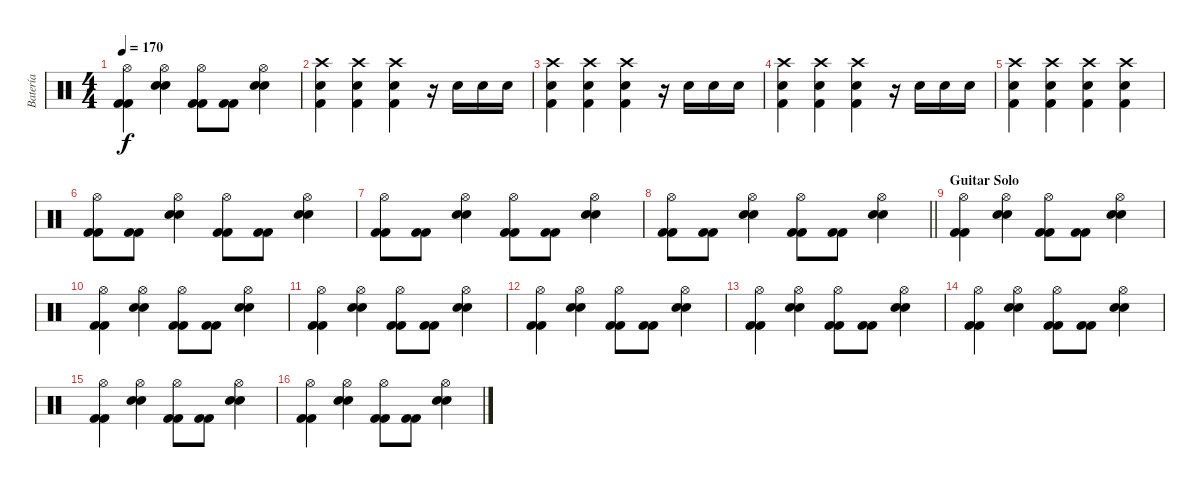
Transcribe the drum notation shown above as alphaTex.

\track ("Batería" "Batería") {instrument percussion}
\staff {score}
\articulation defaults
\ts (4 4)
\tempo 170
\clef neutral
\ks c
("Hi-Hat (open)" "Kick (hit) 2" "Kick (hit) 2").4{dy f} ("Hi-Hat (open)" "Snare (hit) 2" "Snare (hit) 2").4 ("Hi-Hat (open)" "Kick (hit) 2" "Kick (hit) 2").8 ("Kick (hit) 2" "Kick (hit) 2").8 ("Hi-Hat (open)" "Snare (hit) 2" "Snare (hit) 2").4 |
("Crash high (hit)" "Snare (hit) 2" "Kick (hit) 2").4 ("Crash high (hit)" "Snare (hit) 2" "Kick (hit) 2").4 ("Crash high (hit)" "Snare (hit) 2" "Kick (hit) 2").4 r.16 "Snare (hit) 2".16 "Snare (hit) 2".16 "Snare (hit) 2".16 |
("Crash high (hit)" "Snare (hit) 2" "Kick (hit) 2").4 ("Crash high (hit)" "Snare (hit) 2" "Kick (hit) 2").4 ("Crash high (hit)" "Snare (hit) 2" "Kick (hit) 2").4 r.16 "Snare (hit) 2".16 "Snare (hit) 2".16 "Snare (hit) 2".16 |
("Crash high (hit)" "Snare (hit) 2" "Kick (hit) 2").4 ("Crash high (hit)" "Snare (hit) 2" "Kick (hit) 2").4 ("Crash high (hit)" "Snare (hit) 2" "Kick (hit) 2").4 r.16 "Snare (hit) 2".16 "Snare (hit) 2".16 "Snare (hit) 2".16 |
("Crash high (hit)" "Snare (hit) 2" "Kick (hit) 2").4 ("Crash high (hit)" "Snare (hit) 2" "Kick (hit) 2").4 ("Crash high (hit)" "Snare (hit) 2" "Kick (hit) 2").4 ("Crash high (hit)" "Snare (hit) 2" "Kick (hit) 2").4 |
("Hi-Hat (open)" "Kick (hit) 2" "Kick (hit) 2").8 ("Kick (hit) 2" "Kick (hit) 2").8 ("Hi-Hat (open)" "Snare (hit) 2" "Snare (hit) 2").4 ("Hi-Hat (open)" "Kick (hit) 2" "Kick (hit) 2").8 ("Kick (hit) 2" "Kick (hit) 2").8 ("Hi-Hat (open)" "Snare (hit) 2" "Snare (hit) 2").4 |
("Hi-Hat (open)" "Kick (hit) 2" "Kick (hit) 2").8 ("Kick (hit) 2" "Kick (hit) 2").8 ("Hi-Hat (open)" "Snare (hit) 2" "Snare (hit) 2").4 ("Hi-Hat (open)" "Kick (hit) 2" "Kick (hit) 2").8 ("Kick (hit) 2" "Kick (hit) 2").8 ("Hi-Hat (open)" "Snare (hit) 2" "Snare (hit) 2").4 |
\barLineRight lightlight
("Hi-Hat (open)" "Kick (hit) 2" "Kick (hit) 2").8 ("Kick (hit) 2" "Kick (hit) 2").8 ("Hi-Hat (open)" "Snare (hit) 2" "Snare (hit) 2").4 ("Hi-Hat (open)" "Kick (hit) 2" "Kick (hit) 2").8 ("Kick (hit) 2" "Kick (hit) 2").8 ("Hi-Hat (open)" "Snare (hit) 2" "Snare (hit) 2").4 |
\section ("" "Guitar Solo")
("Hi-Hat (open)" "Kick (hit) 2" "Kick (hit) 2").4 ("Hi-Hat (open)" "Snare (hit) 2" "Snare (hit) 2").4 ("Hi-Hat (open)" "Kick (hit) 2" "Kick (hit) 2").8 ("Kick (hit) 2" "Kick (hit) 2").8 ("Hi-Hat (open)" "Snare (hit) 2" "Snare (hit) 2").4 |
("Hi-Hat (open)" "Kick (hit) 2" "Kick (hit) 2").4 ("Hi-Hat (open)" "Snare (hit) 2" "Snare (hit) 2").4 ("Hi-Hat (open)" "Kick (hit) 2" "Kick (hit) 2").8 ("Kick (hit) 2" "Kick (hit) 2").8 ("Hi-Hat (open)" "Snare (hit) 2" "Snare (hit) 2").4 |
("Hi-Hat (open)" "Kick (hit) 2" "Kick (hit) 2").4 ("Hi-Hat (open)" "Snare (hit) 2" "Snare (hit) 2").4 ("Hi-Hat (open)" "Kick (hit) 2" "Kick (hit) 2").8 ("Kick (hit) 2" "Kick (hit) 2").8 ("Hi-Hat (open)" "Snare (hit) 2" "Snare (hit) 2").4 |
("Hi-Hat (open)" "Kick (hit) 2" "Kick (hit) 2").4 ("Hi-Hat (open)" "Snare (hit) 2" "Snare (hit) 2").4 ("Hi-Hat (open)" "Kick (hit) 2" "Kick (hit) 2").8 ("Kick (hit) 2" "Kick (hit) 2").8 ("Hi-Hat (open)" "Snare (hit) 2" "Snare (hit) 2").4 |
("Hi-Hat (open)" "Kick (hit) 2" "Kick (hit) 2").4 ("Hi-Hat (open)" "Snare (hit) 2" "Snare (hit) 2").4 ("Hi-Hat (open)" "Kick (hit) 2" "Kick (hit) 2").8 ("Kick (hit) 2" "Kick (hit) 2").8 ("Hi-Hat (open)" "Snare (hit) 2" "Snare (hit) 2").4 |
("Hi-Hat (open)" "Kick (hit) 2" "Kick (hit) 2").4 ("Hi-Hat (open)" "Snare (hit) 2" "Snare (hit) 2").4 ("Hi-Hat (open)" "Kick (hit) 2" "Kick (hit) 2").8 ("Kick (hit) 2" "Kick (hit) 2").8 ("Hi-Hat (open)" "Snare (hit) 2" "Snare (hit) 2").4 |
("Hi-Hat (open)" "Kick (hit) 2" "Kick (hit) 2").4 ("Hi-Hat (open)" "Snare (hit) 2" "Snare (hit) 2").4 ("Hi-Hat (open)" "Kick (hit) 2" "Kick (hit) 2").8 ("Kick (hit) 2" "Kick (hit) 2").8 ("Hi-Hat (open)" "Snare (hit) 2" "Snare (hit) 2").4 |
("Hi-Hat (open)" "Kick (hit) 2" "Kick (hit) 2").4 ("Hi-Hat (open)" "Snare (hit) 2" "Snare (hit) 2").4 ("Hi-Hat (open)" "Kick (hit) 2" "Kick (hit) 2").8 ("Kick (hit) 2" "Kick (hit) 2").8 ("Hi-Hat (open)" "Snare (hit) 2" "Snare (hit) 2").4
